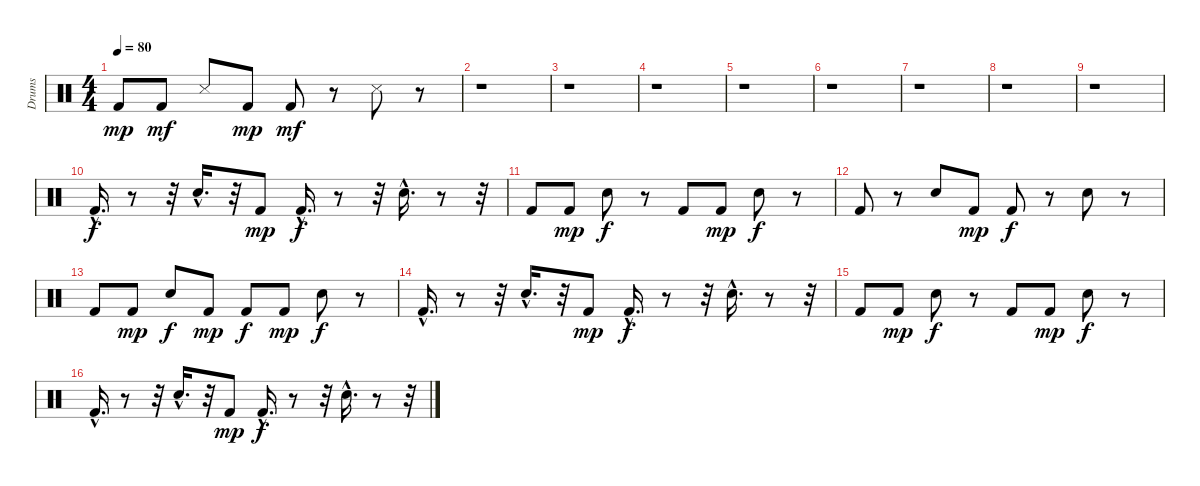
\track ("Drums" "Drums") {instrument percussion}
\staff {score}
\articulation defaults
\ts (4 4)
\tempo 80
\clef neutral
\ks c "Kick (hit) 2".8{dy mp} "Kick (hit) 2".8{dy mf} "Snare (side stick) 3".8 "Kick (hit) 2".8{dy mp} "Kick (hit) 2".8{dy mf}
r.8 "Snare (side stick) 3".8 r.8 |
r.1 |
r.1 |
r.1 |
r.1 |
r.1 |
r.1 |
r.1 |
r.1 |
"Kick (hit) 2"{hac}.16{d dy f} r.8 r.32 "Electric Snare (hit)"{hac}.16{d} r.32 "Kick (hit) 2".8{dy mp} "Kick (hit) 2"{hac}.16{d dy f} r.8 r.32 "Electric Snare (hit)"{hac}.16{d} r.8 r.32 |
"Kick (hit) 2".8 "Kick (hit) 2".8{dy mp} "Electric Snare (hit)".8{dy f} r.8 "Kick (hit) 2".8 "Kick (hit) 2".8{dy mp} "Electric Snare (hit)".8{dy f} r.8 |
"Kick (hit) 2".8 r.8 "Electric Snare (hit)".8 "Kick (hit) 2".8{dy mp} "Kick (hit) 2".8{dy f} r.8 "Electric Snare (hit)".8 r.8 |
"Kick (hit) 2".8 "Kick (hit) 2".8{dy mp} "Electric Snare (hit)".8{dy f} "Kick (hit) 2".8{dy mp} "Kick (hit) 2".8{dy f} "Kick (hit) 2".8{dy mp} "Electric Snare (hit)".8{dy f} r.8 |
"Kick (hit) 2"{hac}.16{d} r.8 r.32 "Electric Snare (hit)"{hac}.16{d} r.32 "Kick (hit) 2".8{dy mp} "Kick (hit) 2"{hac}.16{d dy f} r.8 r.32 "Electric Snare (hit)"{hac}.16{d} r.8 r.32 |
"Kick (hit) 2".8 "Kick (hit) 2".8{dy mp} "Electric Snare (hit)".8{dy f} r.8 "Kick (hit) 2".8 "Kick (hit) 2".8{dy mp} "Electric Snare (hit)".8{dy f} r.8 |
"Kick (hit) 2"{hac}.16{d} r.8 r.32 "Electric Snare (hit)"{hac}.16{d} r.32 "Kick (hit) 2".8{dy mp} "Kick (hit) 2"{hac}.16{d dy f} r.8 r.32 "Electric Snare (hit)"{hac}.16{d} r.8 r.32
